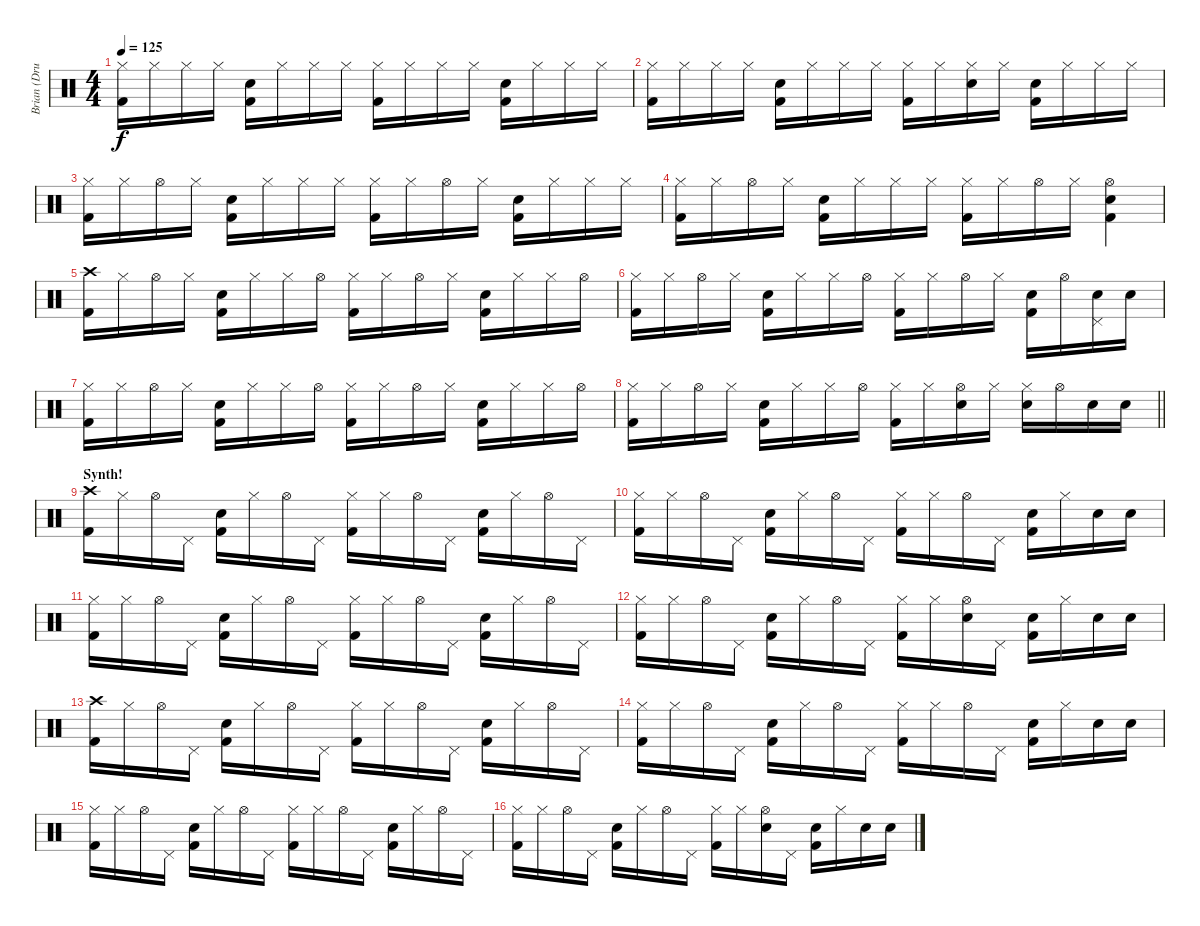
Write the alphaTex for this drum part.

\track ("Brian (Drums)" "Brian (Dru") {instrument percussion}
\staff {score}
\articulation defaults
\ts (4 4)
\tempo 125
\clef neutral
\ks c
("Hi-Hat (closed)" "Kick (hit) 2").16{dy f} "Hi-Hat (closed)".16 "Hi-Hat (closed)".16 "Hi-Hat (closed)".16 ("Electric Snare (hit)" "Kick (hit) 2").16 "Hi-Hat (closed)".16 "Hi-Hat (closed)".16 "Hi-Hat (closed)".16 ("Hi-Hat (closed)" "Kick (hit) 2").16 "Hi-Hat (closed)".16 "Hi-Hat (closed)".16 "Hi-Hat (closed)".16 ("Electric Snare (hit)" "Kick (hit) 2").16 "Hi-Hat (closed)".16 "Hi-Hat (closed)".16 "Hi-Hat (closed)".16 |
("Hi-Hat (closed)" "Kick (hit) 2").16 "Hi-Hat (closed)".16 "Hi-Hat (closed)".16 "Hi-Hat (closed)".16 ("Electric Snare (hit)" "Kick (hit) 2").16 "Hi-Hat (closed)".16 "Hi-Hat (closed)".16 "Hi-Hat (closed)".16 ("Hi-Hat (closed)" "Kick (hit) 2").16 "Hi-Hat (closed)".16 ("Hi-Hat (closed)" "Electric Snare (hit)").16 "Hi-Hat (closed)".16 ("Electric Snare (hit)" "Kick (hit) 2").16 "Hi-Hat (closed)".16 "Hi-Hat (closed)".16 "Hi-Hat (closed)".16 |
("Hi-Hat (closed)" "Kick (hit) 2").16 "Hi-Hat (closed)".16 "Hi-Hat (open)".16 "Hi-Hat (closed)".16 ("Electric Snare (hit)" "Kick (hit) 2").16 "Hi-Hat (closed)".16 "Hi-Hat (closed)".16 "Hi-Hat (closed)".16 ("Hi-Hat (closed)" "Kick (hit) 2").16 "Hi-Hat (closed)".16 "Hi-Hat (open)".16 "Hi-Hat (closed)".16 ("Electric Snare (hit)" "Kick (hit) 2").16 "Hi-Hat (closed)".16 "Hi-Hat (closed)".16 "Hi-Hat (closed)".16 |
("Hi-Hat (closed)" "Kick (hit) 2").16 "Hi-Hat (closed)".16 "Hi-Hat (open)".16 "Hi-Hat (closed)".16 ("Electric Snare (hit)" "Kick (hit) 2").16 "Hi-Hat (closed)".16 "Hi-Hat (closed)".16 "Hi-Hat (closed)".16 ("Hi-Hat (closed)" "Kick (hit) 2").16 "Hi-Hat (closed)".16 "Hi-Hat (open)".16 "Hi-Hat (closed)".16 ("Hi-Hat (open)" "Electric Snare (hit)" "Kick (hit) 2").4 |
("Crash high (hit)" "Kick (hit) 2").16 "Hi-Hat (closed)".16 "Hi-Hat (open)".16 "Hi-Hat (closed)".16 ("Electric Snare (hit)" "Kick (hit) 2").16 "Hi-Hat (closed)".16 "Hi-Hat (closed)".16 "Hi-Hat (open)".16 ("Hi-Hat (closed)" "Kick (hit) 2").16 "Hi-Hat (closed)".16 "Hi-Hat (open)".16 "Hi-Hat (closed)".16 ("Electric Snare (hit)" "Kick (hit) 2").16 "Hi-Hat (closed)".16 "Hi-Hat (closed)".16 "Hi-Hat (open)".16 |
("Hi-Hat (closed)" "Kick (hit) 2").16 "Hi-Hat (closed)".16 "Hi-Hat (open)".16 "Hi-Hat (closed)".16 ("Electric Snare (hit)" "Kick (hit) 2").16 "Hi-Hat (closed)".16 "Hi-Hat (closed)".16 "Hi-Hat (open)".16 ("Hi-Hat (closed)" "Kick (hit) 2").16 "Hi-Hat (closed)".16 "Hi-Hat (open)".16 "Hi-Hat (closed)".16 ("Electric Snare (hit)" "Kick (hit) 2").16 "Hi-Hat (open)".16 ("Pedal Hi-Hat (hit)" "Electric Snare (hit)").16 "Electric Snare (hit)".16 |
("Hi-Hat (closed)" "Kick (hit) 2").16 "Hi-Hat (closed)".16 "Hi-Hat (open)".16 "Hi-Hat (closed)".16 ("Electric Snare (hit)" "Kick (hit) 2").16 "Hi-Hat (closed)".16 "Hi-Hat (closed)".16 "Hi-Hat (open)".16 ("Hi-Hat (closed)" "Kick (hit) 2").16 "Hi-Hat (closed)".16 "Hi-Hat (open)".16 "Hi-Hat (closed)".16 ("Electric Snare (hit)" "Kick (hit) 2").16 "Hi-Hat (closed)".16 "Hi-Hat (closed)".16 "Hi-Hat (open)".16 |
\barLineRight lightlight
("Hi-Hat (closed)" "Kick (hit) 2").16 "Hi-Hat (closed)".16 "Hi-Hat (open)".16 "Hi-Hat (closed)".16 ("Electric Snare (hit)" "Kick (hit) 2").16 "Hi-Hat (closed)".16 "Hi-Hat (closed)".16 "Hi-Hat (open)".16 ("Hi-Hat (closed)" "Kick (hit) 2").16 "Hi-Hat (closed)".16 ("Hi-Hat (open)" "Electric Snare (hit)").16 "Hi-Hat (closed)".16 ("Hi-Hat (closed)" "Electric Snare (hit)").16 "Hi-Hat (open)".16 "Electric Snare (hit)".16 "Electric Snare (hit)".16 |
\section ("" "Synth!")
("Crash high (hit)" "Kick (hit) 2").16 "Hi-Hat (closed)".16 "Hi-Hat (open)".16 "Pedal Hi-Hat (hit)".16 ("Electric Snare (hit)" "Kick (hit) 2").16 "Hi-Hat (closed)".16 "Hi-Hat (open)".16 "Pedal Hi-Hat (hit)".16 ("Hi-Hat (closed)" "Kick (hit) 2").16 "Hi-Hat (closed)".16 "Hi-Hat (open)".16 "Pedal Hi-Hat (hit)".16 ("Electric Snare (hit)" "Kick (hit) 2").16 "Hi-Hat (closed)".16 "Hi-Hat (open)".16 "Pedal Hi-Hat (hit)".16 |
("Hi-Hat (closed)" "Kick (hit) 2").16 "Hi-Hat (closed)".16 "Hi-Hat (open)".16 "Pedal Hi-Hat (hit)".16 ("Electric Snare (hit)" "Kick (hit) 2").16 "Hi-Hat (closed)".16 "Hi-Hat (open)".16 "Pedal Hi-Hat (hit)".16 ("Hi-Hat (closed)" "Kick (hit) 2").16 "Hi-Hat (closed)".16 "Hi-Hat (open)".16 "Pedal Hi-Hat (hit)".16 ("Electric Snare (hit)" "Kick (hit) 2").16 "Hi-Hat (closed)".16 "Electric Snare (hit)".16 "Electric Snare (hit)".16 |
("Hi-Hat (closed)" "Kick (hit) 2").16 "Hi-Hat (closed)".16 "Hi-Hat (open)".16 "Pedal Hi-Hat (hit)".16 ("Electric Snare (hit)" "Kick (hit) 2").16 "Hi-Hat (closed)".16 "Hi-Hat (open)".16 "Pedal Hi-Hat (hit)".16 ("Hi-Hat (closed)" "Kick (hit) 2").16 "Hi-Hat (closed)".16 "Hi-Hat (open)".16 "Pedal Hi-Hat (hit)".16 ("Electric Snare (hit)" "Kick (hit) 2").16 "Hi-Hat (closed)".16 "Hi-Hat (open)".16 "Pedal Hi-Hat (hit)".16 |
("Hi-Hat (closed)" "Kick (hit) 2").16 "Hi-Hat (closed)".16 "Hi-Hat (open)".16 "Pedal Hi-Hat (hit)".16 ("Electric Snare (hit)" "Kick (hit) 2").16 "Hi-Hat (closed)".16 "Hi-Hat (open)".16 "Pedal Hi-Hat (hit)".16 ("Hi-Hat (closed)" "Kick (hit) 2").16 "Hi-Hat (closed)".16 ("Hi-Hat (open)" "Electric Snare (hit)").16 "Pedal Hi-Hat (hit)".16 ("Electric Snare (hit)" "Kick (hit) 2").16 "Hi-Hat (closed)".16 "Electric Snare (hit)".16 "Electric Snare (hit)".16 |
("Crash high (hit)" "Kick (hit) 2").16 "Hi-Hat (closed)".16 "Hi-Hat (open)".16 "Pedal Hi-Hat (hit)".16 ("Electric Snare (hit)" "Kick (hit) 2").16 "Hi-Hat (closed)".16 "Hi-Hat (open)".16 "Pedal Hi-Hat (hit)".16 ("Hi-Hat (closed)" "Kick (hit) 2").16 "Hi-Hat (closed)".16 "Hi-Hat (open)".16 "Pedal Hi-Hat (hit)".16 ("Electric Snare (hit)" "Kick (hit) 2").16 "Hi-Hat (closed)".16 "Hi-Hat (open)".16 "Pedal Hi-Hat (hit)".16 |
("Hi-Hat (closed)" "Kick (hit) 2").16 "Hi-Hat (closed)".16 "Hi-Hat (open)".16 "Pedal Hi-Hat (hit)".16 ("Electric Snare (hit)" "Kick (hit) 2").16 "Hi-Hat (closed)".16 "Hi-Hat (open)".16 "Pedal Hi-Hat (hit)".16 ("Hi-Hat (closed)" "Kick (hit) 2").16 "Hi-Hat (closed)".16 "Hi-Hat (open)".16 "Pedal Hi-Hat (hit)".16 ("Electric Snare (hit)" "Kick (hit) 2").16 "Hi-Hat (closed)".16 "Electric Snare (hit)".16 "Electric Snare (hit)".16 |
("Hi-Hat (closed)" "Kick (hit) 2").16 "Hi-Hat (closed)".16 "Hi-Hat (open)".16 "Pedal Hi-Hat (hit)".16 ("Electric Snare (hit)" "Kick (hit) 2").16 "Hi-Hat (closed)".16 "Hi-Hat (open)".16 "Pedal Hi-Hat (hit)".16 ("Hi-Hat (closed)" "Kick (hit) 2").16 "Hi-Hat (closed)".16 "Hi-Hat (open)".16 "Pedal Hi-Hat (hit)".16 ("Electric Snare (hit)" "Kick (hit) 2").16 "Hi-Hat (closed)".16 "Hi-Hat (open)".16 "Pedal Hi-Hat (hit)".16 |
("Hi-Hat (closed)" "Kick (hit) 2").16 "Hi-Hat (closed)".16 "Hi-Hat (open)".16 "Pedal Hi-Hat (hit)".16 ("Electric Snare (hit)" "Kick (hit) 2").16 "Hi-Hat (closed)".16 "Hi-Hat (open)".16 "Pedal Hi-Hat (hit)".16 ("Hi-Hat (closed)" "Kick (hit) 2").16 "Hi-Hat (closed)".16 ("Hi-Hat (open)" "Electric Snare (hit)").16 "Pedal Hi-Hat (hit)".16 ("Electric Snare (hit)" "Kick (hit) 2").16 "Hi-Hat (closed)".16 "Electric Snare (hit)".16 "Electric Snare (hit)".16
